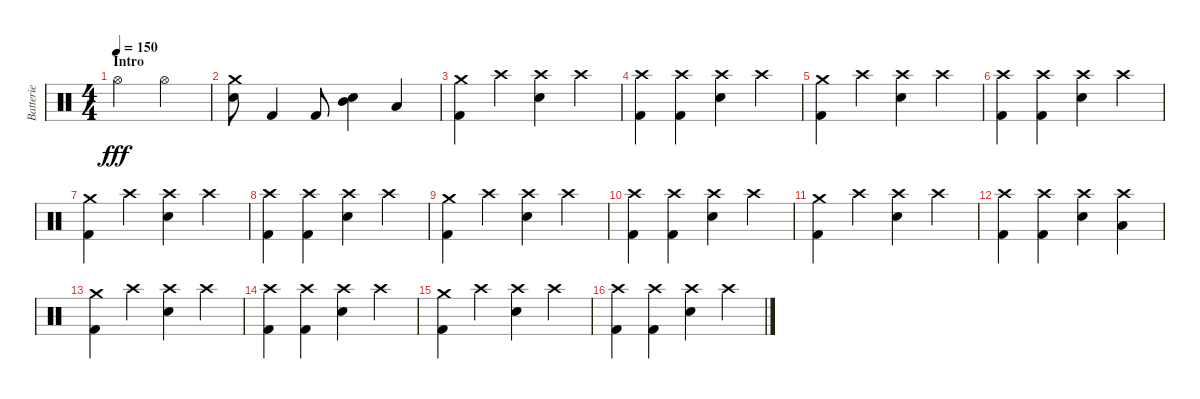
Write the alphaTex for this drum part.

\track ("Batterie" "Batterie") {instrument percussion}
\staff {score}
\articulation defaults
\ts (4 4)
\section ("" "Intro")
\tempo 150
\clef neutral
\ks c "Hi-Hat (open)".2{dy fff} "Hi-Hat (open)".2
|
("Crash medium (hit)" "Electric Snare (hit)").8{bu 60} "Kick (hit) 2".4 "Kick (hit) 2".8 ("Mid Tom (hit)" "Electric Snare (hit)").4 "Low Tom (hit)".4 |
("Crash medium (hit)" "Kick (hit) 2").4 "Crash high (hit)".4 ("Crash high (hit)" "Electric Snare (hit)").4 "Crash high (hit)".4 |
("Crash high (hit)" "Kick (hit) 2").4 ("Crash high (hit)" "Kick (hit) 2").4 ("Crash high (hit)" "Electric Snare (hit)").4 "Crash high (hit)".4 |
("Crash medium (hit)" "Kick (hit) 2").4 "Crash high (hit)".4 ("Crash high (hit)" "Electric Snare (hit)").4 "Crash high (hit)".4 |
("Crash high (hit)" "Kick (hit) 2").4 ("Crash high (hit)" "Kick (hit) 2").4 ("Crash high (hit)" "Electric Snare (hit)").4 "Crash high (hit)".4 |
("Crash medium (hit)" "Kick (hit) 2").4 "Crash high (hit)".4 ("Crash high (hit)" "Electric Snare (hit)").4 "Crash high (hit)".4 |
("Crash high (hit)" "Kick (hit) 2").4 ("Crash high (hit)" "Kick (hit) 2").4 ("Crash high (hit)" "Electric Snare (hit)").4 "Crash high (hit)".4 |
("Crash medium (hit)" "Kick (hit) 2").4 "Crash high (hit)".4 ("Crash high (hit)" "Electric Snare (hit)").4 "Crash high (hit)".4 |
("Crash high (hit)" "Kick (hit) 2").4 ("Crash high (hit)" "Kick (hit) 2").4 ("Crash high (hit)" "Electric Snare (hit)").4 "Crash high (hit)".4 |
("Crash medium (hit)" "Kick (hit) 2").4 "Crash high (hit)".4 ("Crash high (hit)" "Electric Snare (hit)").4 "Crash high (hit)".4 |
("Crash high (hit)" "Kick (hit) 2").4 ("Crash high (hit)" "Kick (hit) 2").4 ("Crash high (hit)" "Electric Snare (hit)").4 ("Crash high (hit)" "Low Tom (hit)").4 |
("Crash medium (hit)" "Kick (hit) 2").4 "Crash high (hit)".4 ("Crash high (hit)" "Electric Snare (hit)").4 "Crash high (hit)".4 |
("Crash high (hit)" "Kick (hit) 2").4 ("Crash high (hit)" "Kick (hit) 2").4 ("Crash high (hit)" "Electric Snare (hit)").4 "Crash high (hit)".4 |
("Crash medium (hit)" "Kick (hit) 2").4 "Crash high (hit)".4 ("Crash high (hit)" "Electric Snare (hit)").4 "Crash high (hit)".4 |
("Crash high (hit)" "Kick (hit) 2").4 ("Crash high (hit)" "Kick (hit) 2").4 ("Crash high (hit)" "Electric Snare (hit)").4 "Crash high (hit)".4
